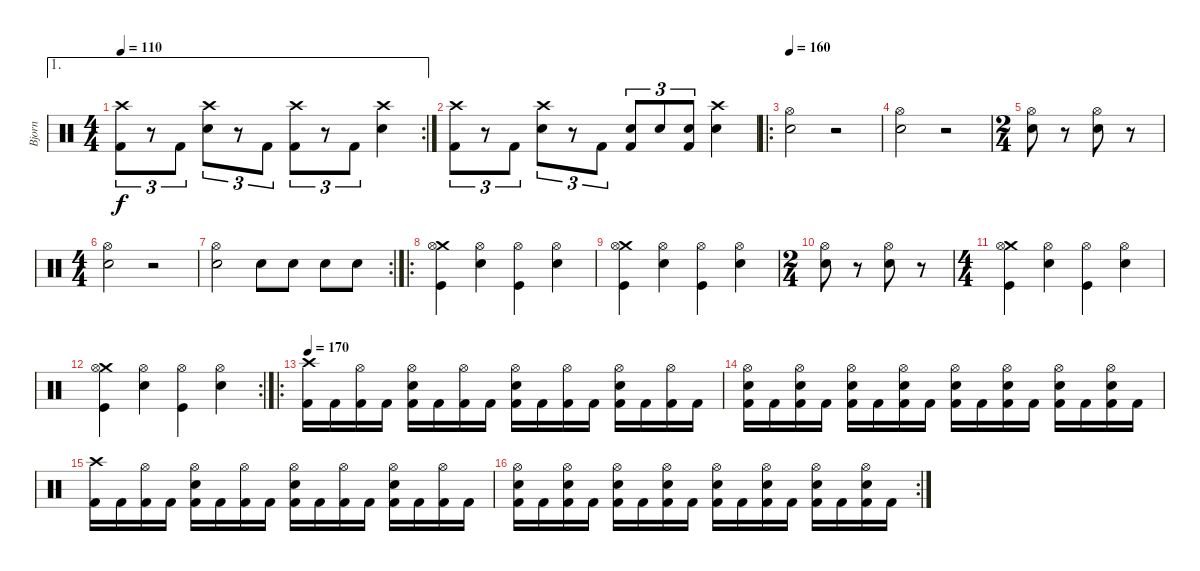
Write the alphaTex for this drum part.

\track ("Bjorn " "Bjorn ") {instrument percussion}
\staff {score}
\articulation defaults
\ae 1
\rc 2
\ts (4 4)
\tempo 110
\clef neutral
\ks c
("Crash high (hit)" "Kick (hit) 2").8{tu (3 2) dy f} r.8{tu (3 2)} "Kick (hit) 2".8{tu (3 2)} ("Crash high (hit)" "Electric Snare (hit)").8{tu (3 2)} r.8{tu (3 2)} "Kick (hit) 2".8{tu (3 2)} ("Crash high (hit)" "Kick (hit) 2").8{tu (3 2)} r.8{tu (3 2)} "Kick (hit) 2".8{tu (3 2)} ("Crash high (hit)" "Electric Snare (hit)").4 |
("Crash high (hit)" "Kick (hit) 2").8{tu (3 2)} r.8{tu (3 2)} "Kick (hit) 2".8{tu (3 2)} ("Crash high (hit)" "Electric Snare (hit)").8{tu (3 2)} r.8{tu (3 2)} "Kick (hit) 2".8{tu (3 2)} ("Electric Snare (hit)" "Kick (hit) 2").8{tu (3 2)} "Electric Snare (hit)".8{tu (3 2)} ("Electric Snare (hit)" "Kick (hit) 2").8{tu (3 2)} ("Crash high (hit)" "Electric Snare (hit)").4 |
\ro
\tempo 160
("Hi-Hat (open)" "Electric Snare (hit)").2 r.2 |
("Hi-Hat (open)" "Electric Snare (hit)").2 r.2 |
\ts (2 4)
("Hi-Hat (open)" "Electric Snare (hit)").8 r.8 ("Hi-Hat (open)" "Electric Snare (hit)").8 r.8 |
\ts (4 4)
("Hi-Hat (open)" "Electric Snare (hit)").2 r.2 |
\rc 2
("Hi-Hat (open)" "Electric Snare (hit)").2 "Electric Snare (hit)".8 "Electric Snare (hit)".8 "Electric Snare (hit)".8 "Electric Snare (hit)".8 |
\ro
("Crash medium (hit)" "Hi-Hat (open)" "Kick (hit)").4 ("Hi-Hat (open)" "Electric Snare (hit)").4 ("Hi-Hat (open)" "Kick (hit)").4 ("Hi-Hat (open)" "Electric Snare (hit)").4 |
("Crash medium (hit)" "Hi-Hat (open)" "Kick (hit)").4 ("Hi-Hat (open)" "Electric Snare (hit)").4 ("Hi-Hat (open)" "Kick (hit)").4 ("Hi-Hat (open)" "Electric Snare (hit)").4 |
\ts (2 4)
("Hi-Hat (open)" "Electric Snare (hit)").8 r.8 ("Hi-Hat (open)" "Electric Snare (hit)").8 r.8 |
\ts (4 4)
("Crash medium (hit)" "Hi-Hat (open)" "Kick (hit)").4 ("Hi-Hat (open)" "Electric Snare (hit)").4 ("Hi-Hat (open)" "Kick (hit)").4 ("Hi-Hat (open)" "Electric Snare (hit)").4 |
\rc 2
("Crash medium (hit)" "Hi-Hat (open)" "Kick (hit)").4 ("Hi-Hat (open)" "Electric Snare (hit)").4 ("Hi-Hat (open)" "Kick (hit)").4 ("Hi-Hat (open)" "Electric Snare (hit)").4 |
\ro
\tempo 170
("Crash high (hit)" "Kick (hit) 2").16 "Kick (hit) 2".16 ("Hi-Hat (open)" "Kick (hit) 2").16 "Kick (hit) 2".16 ("Hi-Hat (open)" "Electric Snare (hit)" "Kick (hit) 2").16 "Kick (hit) 2".16 ("Hi-Hat (open)" "Kick (hit) 2").16 "Kick (hit) 2".16 ("Hi-Hat (open)" "Electric Snare (hit)" "Kick (hit) 2").16 "Kick (hit) 2".16 ("Hi-Hat (open)" "Kick (hit) 2").16 "Kick (hit) 2".16 ("Hi-Hat (open)" "Electric Snare (hit)" "Kick (hit) 2").16 "Kick (hit) 2".16 ("Hi-Hat (open)" "Kick (hit) 2").16 "Kick (hit) 2".16 |
("Hi-Hat (open)" "Electric Snare (hit)" "Kick (hit) 2").16 "Kick (hit) 2".16 ("Hi-Hat (open)" "Electric Snare (hit)" "Kick (hit) 2").16 "Kick (hit) 2".16 ("Hi-Hat (open)" "Electric Snare (hit)" "Kick (hit) 2").16 "Kick (hit) 2".16 ("Hi-Hat (open)" "Electric Snare (hit)" "Kick (hit) 2").16 "Kick (hit) 2".16 ("Hi-Hat (open)" "Electric Snare (hit)" "Kick (hit) 2").16 "Kick (hit) 2".16 ("Hi-Hat (open)" "Electric Snare (hit)" "Kick (hit) 2").16 "Kick (hit) 2".16 ("Hi-Hat (open)" "Electric Snare (hit)" "Kick (hit) 2").16 "Kick (hit) 2".16 ("Hi-Hat (open)" "Electric Snare (hit)" "Kick (hit) 2").16 "Kick (hit) 2".16 |
("Crash high (hit)" "Kick (hit) 2").16 "Kick (hit) 2".16 ("Hi-Hat (open)" "Kick (hit) 2").16 "Kick (hit) 2".16 ("Hi-Hat (open)" "Electric Snare (hit)" "Kick (hit) 2").16 "Kick (hit) 2".16 ("Hi-Hat (open)" "Kick (hit) 2").16 "Kick (hit) 2".16 ("Hi-Hat (open)" "Electric Snare (hit)" "Kick (hit) 2").16 "Kick (hit) 2".16 ("Hi-Hat (open)" "Kick (hit) 2").16 "Kick (hit) 2".16 ("Hi-Hat (open)" "Electric Snare (hit)" "Kick (hit) 2").16 "Kick (hit) 2".16 ("Hi-Hat (open)" "Kick (hit) 2").16 "Kick (hit) 2".16 |
\rc 2
("Hi-Hat (open)" "Electric Snare (hit)" "Kick (hit) 2").16 "Kick (hit) 2".16 ("Hi-Hat (open)" "Electric Snare (hit)" "Kick (hit) 2").16 "Kick (hit) 2".16 ("Hi-Hat (open)" "Electric Snare (hit)" "Kick (hit) 2").16 "Kick (hit) 2".16 ("Hi-Hat (open)" "Electric Snare (hit)" "Kick (hit) 2").16 "Kick (hit) 2".16 ("Hi-Hat (open)" "Electric Snare (hit)" "Kick (hit) 2").16 "Kick (hit) 2".16 ("Hi-Hat (open)" "Electric Snare (hit)" "Kick (hit) 2").16 "Kick (hit) 2".16 ("Hi-Hat (open)" "Electric Snare (hit)" "Kick (hit) 2").16 "Kick (hit) 2".16 ("Hi-Hat (open)" "Electric Snare (hit)" "Kick (hit) 2").16 "Kick (hit) 2".16
